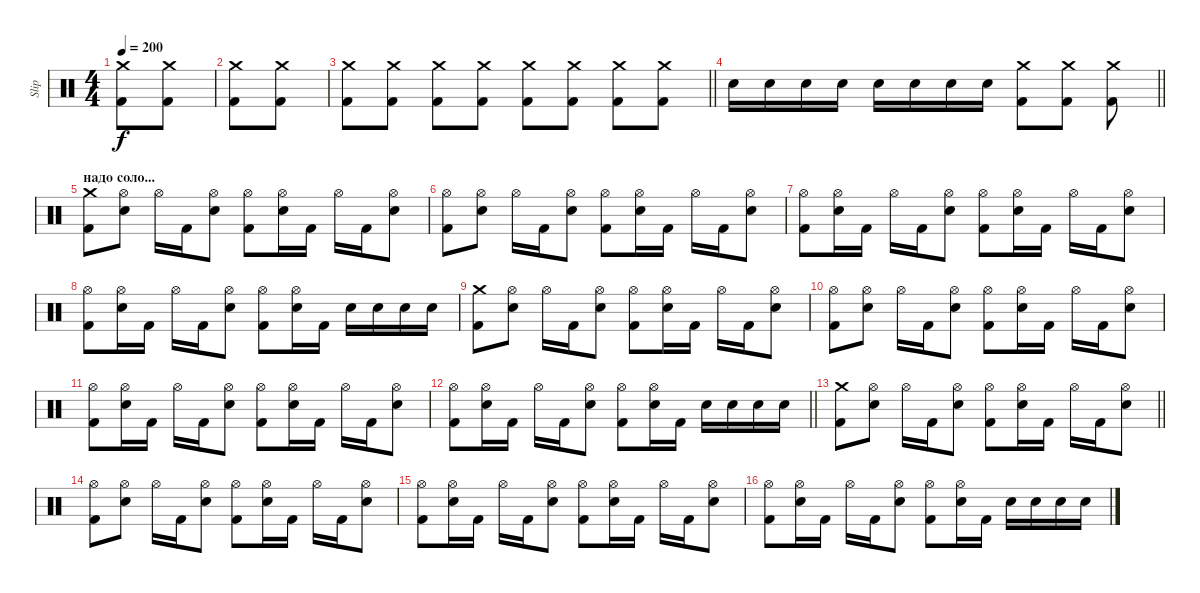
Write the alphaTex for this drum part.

\track ("Slip" "Slip") {instrument percussion}
\staff {score}
\articulation defaults
\ts (4 4)
\tempo 200
\clef neutral
\ks c
("Kick (hit) 2" "Crash medium (hit)").8{dy f} ("Kick (hit) 2" "Crash medium (hit)").8 |
("Kick (hit) 2" "Crash medium (hit)").8 ("Kick (hit) 2" "Crash medium (hit)").8 |
\barLineRight lightlight
("Kick (hit) 2" "Crash medium (hit)").8 ("Kick (hit) 2" "Crash medium (hit)").8 ("Kick (hit) 2" "Crash medium (hit)").8 ("Kick (hit) 2" "Crash medium (hit)").8 ("Kick (hit) 2" "Crash medium (hit)").8 ("Kick (hit) 2" "Crash medium (hit)").8 ("Kick (hit) 2" "Crash medium (hit)").8 ("Kick (hit) 2" "Crash medium (hit)").8 |
\barLineRight lightlight "Electric Snare (hit)".16 "Electric Snare (hit)".16 "Electric Snare (hit)".16 "Electric Snare (hit)".16 "Electric Snare (hit)".16 "Electric Snare (hit)".16 "Electric Snare (hit)".16 "Electric Snare (hit)".16
("Kick (hit) 2" "Crash medium (hit)").8 ("Kick (hit) 2" "Crash medium (hit)").8 ("Kick (hit) 2" "Crash medium (hit)").8 |
\section ("" "надо соло...")
("Kick (hit) 2" "Crash medium (hit)").8 ("Electric Snare (hit)" "Hi-Hat (open)").8 "Hi-Hat (open)".16 "Kick (hit) 2".16 ("Electric Snare (hit)" "Hi-Hat (open)").8 ("Kick (hit) 2" "Hi-Hat (open)").8 ("Electric Snare (hit)" "Hi-Hat (open)").16 "Kick (hit) 2".16 "Hi-Hat (open)".16 "Kick (hit) 2".16 ("Electric Snare (hit)" "Hi-Hat (open)").8 |
("Kick (hit) 2" "Hi-Hat (open)").8 ("Electric Snare (hit)" "Hi-Hat (open)").8 "Hi-Hat (open)".16 "Kick (hit) 2".16 ("Electric Snare (hit)" "Hi-Hat (open)").8 ("Kick (hit) 2" "Hi-Hat (open)").8 ("Electric Snare (hit)" "Hi-Hat (open)").16 "Kick (hit) 2".16 "Hi-Hat (open)".16 "Kick (hit) 2".16 ("Electric Snare (hit)" "Hi-Hat (open)").8 |
("Kick (hit) 2" "Hi-Hat (open)").8 ("Electric Snare (hit)" "Hi-Hat (open)").16 "Kick (hit) 2".16 "Hi-Hat (open)".16 "Kick (hit) 2".16 ("Electric Snare (hit)" "Hi-Hat (open)").8 ("Kick (hit) 2" "Hi-Hat (open)").8 ("Electric Snare (hit)" "Hi-Hat (open)").16 "Kick (hit) 2".16 "Hi-Hat (open)".16 "Kick (hit) 2".16 ("Electric Snare (hit)" "Hi-Hat (open)").8 |
("Kick (hit) 2" "Hi-Hat (open)").8 ("Electric Snare (hit)" "Hi-Hat (open)").16 "Kick (hit) 2".16 "Hi-Hat (open)".16 "Kick (hit) 2".16 ("Electric Snare (hit)" "Hi-Hat (open)").8 ("Kick (hit) 2" "Hi-Hat (open)").8 ("Electric Snare (hit)" "Hi-Hat (open)").16 "Kick (hit) 2".16 "Electric Snare (hit)".16 "Electric Snare (hit)".16 "Electric Snare (hit)".16 "Electric Snare (hit)".16 |
("Kick (hit) 2" "Crash medium (hit)").8 ("Electric Snare (hit)" "Hi-Hat (open)").8 "Hi-Hat (open)".16 "Kick (hit) 2".16 ("Electric Snare (hit)" "Hi-Hat (open)").8 ("Kick (hit) 2" "Hi-Hat (open)").8 ("Electric Snare (hit)" "Hi-Hat (open)").16 "Kick (hit) 2".16 "Hi-Hat (open)".16 "Kick (hit) 2".16 ("Electric Snare (hit)" "Hi-Hat (open)").8 |
("Kick (hit) 2" "Hi-Hat (open)").8 ("Electric Snare (hit)" "Hi-Hat (open)").8 "Hi-Hat (open)".16 "Kick (hit) 2".16 ("Electric Snare (hit)" "Hi-Hat (open)").8 ("Kick (hit) 2" "Hi-Hat (open)").8 ("Electric Snare (hit)" "Hi-Hat (open)").16 "Kick (hit) 2".16 "Hi-Hat (open)".16 "Kick (hit) 2".16 ("Electric Snare (hit)" "Hi-Hat (open)").8 |
("Kick (hit) 2" "Hi-Hat (open)").8 ("Electric Snare (hit)" "Hi-Hat (open)").16 "Kick (hit) 2".16 "Hi-Hat (open)".16 "Kick (hit) 2".16 ("Electric Snare (hit)" "Hi-Hat (open)").8 ("Kick (hit) 2" "Hi-Hat (open)").8 ("Electric Snare (hit)" "Hi-Hat (open)").16 "Kick (hit) 2".16 "Hi-Hat (open)".16 "Kick (hit) 2".16 ("Electric Snare (hit)" "Hi-Hat (open)").8 |
\barLineRight lightlight
("Kick (hit) 2" "Hi-Hat (open)").8 ("Electric Snare (hit)" "Hi-Hat (open)").16 "Kick (hit) 2".16 "Hi-Hat (open)".16 "Kick (hit) 2".16 ("Electric Snare (hit)" "Hi-Hat (open)").8 ("Kick (hit) 2" "Hi-Hat (open)").8 ("Electric Snare (hit)" "Hi-Hat (open)").16 "Kick (hit) 2".16 "Electric Snare (hit)".16 "Electric Snare (hit)".16 "Electric Snare (hit)".16 "Electric Snare (hit)".16 |
\barLineRight lightlight
("Kick (hit) 2" "Crash medium (hit)").8 ("Electric Snare (hit)" "Hi-Hat (open)").8 "Hi-Hat (open)".16 "Kick (hit) 2".16 ("Electric Snare (hit)" "Hi-Hat (open)").8 ("Kick (hit) 2" "Hi-Hat (open)").8 ("Electric Snare (hit)" "Hi-Hat (open)").16 "Kick (hit) 2".16 "Hi-Hat (open)".16 "Kick (hit) 2".16 ("Electric Snare (hit)" "Hi-Hat (open)").8 |
("Kick (hit) 2" "Hi-Hat (open)").8 ("Electric Snare (hit)" "Hi-Hat (open)").8 "Hi-Hat (open)".16 "Kick (hit) 2".16 ("Electric Snare (hit)" "Hi-Hat (open)").8 ("Kick (hit) 2" "Hi-Hat (open)").8 ("Electric Snare (hit)" "Hi-Hat (open)").16 "Kick (hit) 2".16 "Hi-Hat (open)".16 "Kick (hit) 2".16 ("Electric Snare (hit)" "Hi-Hat (open)").8 |
("Kick (hit) 2" "Hi-Hat (open)").8 ("Electric Snare (hit)" "Hi-Hat (open)").16 "Kick (hit) 2".16 "Hi-Hat (open)".16 "Kick (hit) 2".16 ("Electric Snare (hit)" "Hi-Hat (open)").8 ("Kick (hit) 2" "Hi-Hat (open)").8 ("Electric Snare (hit)" "Hi-Hat (open)").16 "Kick (hit) 2".16 "Hi-Hat (open)".16 "Kick (hit) 2".16 ("Electric Snare (hit)" "Hi-Hat (open)").8 |
("Kick (hit) 2" "Hi-Hat (open)").8 ("Electric Snare (hit)" "Hi-Hat (open)").16 "Kick (hit) 2".16 "Hi-Hat (open)".16 "Kick (hit) 2".16 ("Electric Snare (hit)" "Hi-Hat (open)").8 ("Kick (hit) 2" "Hi-Hat (open)").8 ("Electric Snare (hit)" "Hi-Hat (open)").16 "Kick (hit) 2".16 "Electric Snare (hit)".16 "Electric Snare (hit)".16 "Electric Snare (hit)".16 "Electric Snare (hit)".16
